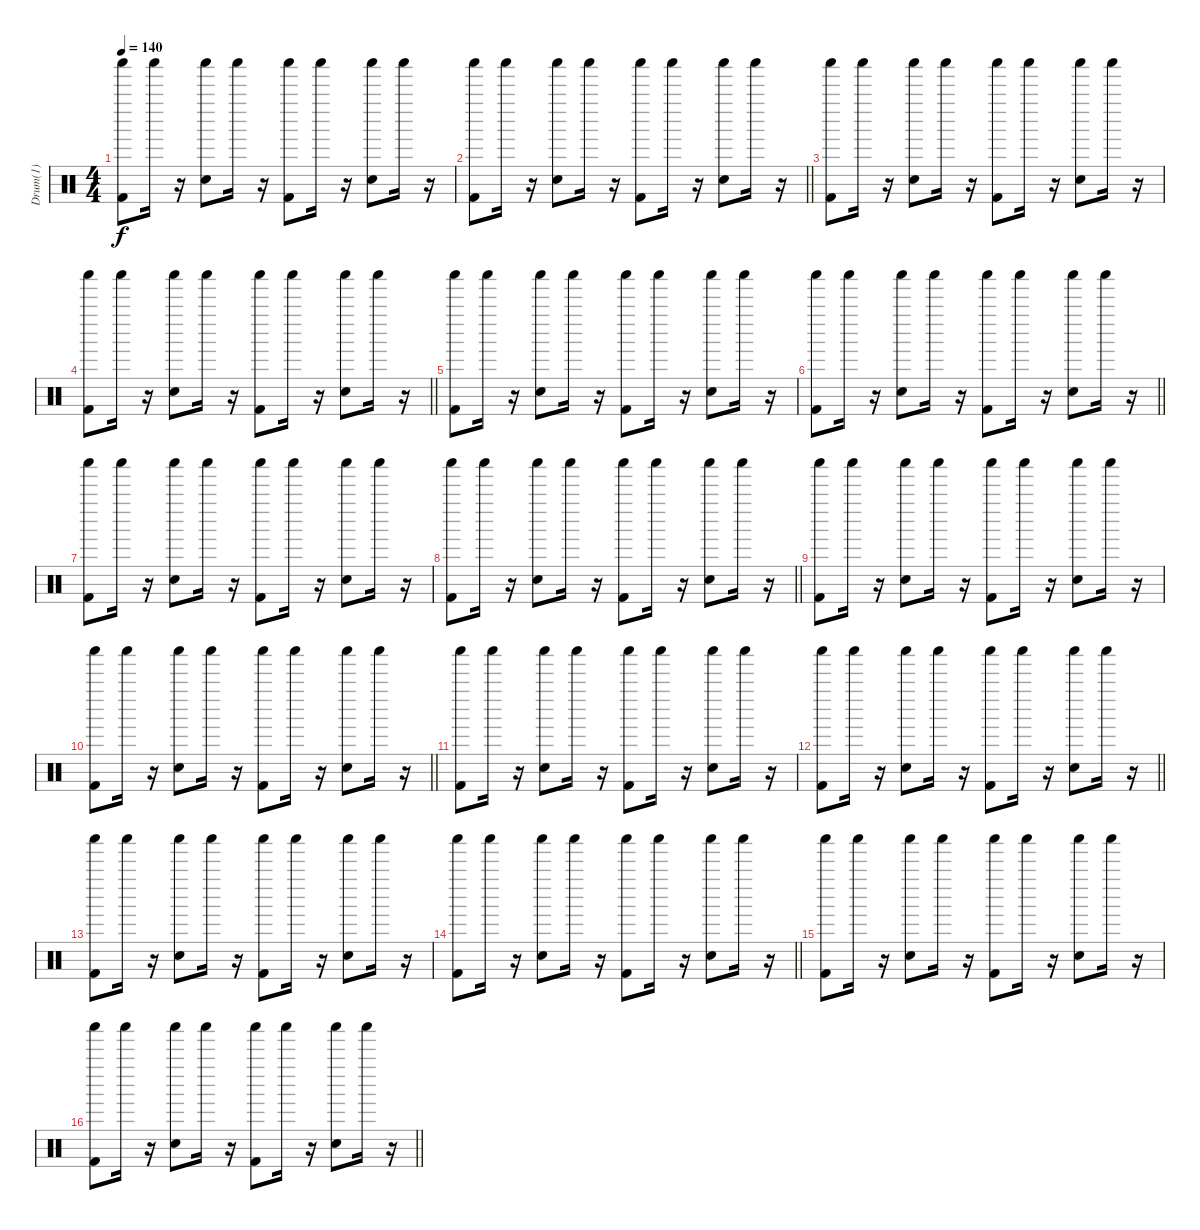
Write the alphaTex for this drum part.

\track ("Drum(1)" "Drum(1)") {instrument percussion}
\staff {score}
\articulation defaults
\ts (4 4)
\tempo 140
\clef neutral
\ks c
("Kick (hit) 2" "Shaker (hit)").8{dy f} "Shaker (hit)".16 r.16 ("Electric Snare (hit)" "Shaker (hit)").8 "Shaker (hit)".16 r.16 ("Kick (hit) 2" "Shaker (hit)").8 "Shaker (hit)".16 r.16 ("Electric Snare (hit)" "Shaker (hit)").8 "Shaker (hit)".16 r.16 |
\barLineRight lightlight
("Kick (hit) 2" "Shaker (hit)").8 "Shaker (hit)".16 r.16 ("Electric Snare (hit)" "Shaker (hit)").8 "Shaker (hit)".16 r.16 ("Kick (hit) 2" "Shaker (hit)").8 "Shaker (hit)".16 r.16 ("Electric Snare (hit)" "Shaker (hit)").8 "Shaker (hit)".16 r.16 |
("Kick (hit) 2" "Shaker (hit)").8 "Shaker (hit)".16 r.16 ("Electric Snare (hit)" "Shaker (hit)").8 "Shaker (hit)".16 r.16 ("Kick (hit) 2" "Shaker (hit)").8 "Shaker (hit)".16 r.16 ("Electric Snare (hit)" "Shaker (hit)").8 "Shaker (hit)".16 r.16 |
\barLineRight lightlight
("Kick (hit) 2" "Shaker (hit)").8 "Shaker (hit)".16 r.16 ("Electric Snare (hit)" "Shaker (hit)").8 "Shaker (hit)".16 r.16 ("Kick (hit) 2" "Shaker (hit)").8 "Shaker (hit)".16 r.16 ("Electric Snare (hit)" "Shaker (hit)").8 "Shaker (hit)".16 r.16 |
("Kick (hit) 2" "Shaker (hit)").8 "Shaker (hit)".16 r.16 ("Electric Snare (hit)" "Shaker (hit)").8 "Shaker (hit)".16 r.16 ("Kick (hit) 2" "Shaker (hit)").8 "Shaker (hit)".16 r.16 ("Electric Snare (hit)" "Shaker (hit)").8 "Shaker (hit)".16 r.16 |
\barLineRight lightlight
("Kick (hit) 2" "Shaker (hit)").8 "Shaker (hit)".16 r.16 ("Electric Snare (hit)" "Shaker (hit)").8 "Shaker (hit)".16 r.16 ("Kick (hit) 2" "Shaker (hit)").8 "Shaker (hit)".16 r.16 ("Electric Snare (hit)" "Shaker (hit)").8 "Shaker (hit)".16 r.16 |
("Kick (hit) 2" "Shaker (hit)").8 "Shaker (hit)".16 r.16 ("Electric Snare (hit)" "Shaker (hit)").8 "Shaker (hit)".16 r.16 ("Kick (hit) 2" "Shaker (hit)").8 "Shaker (hit)".16 r.16 ("Electric Snare (hit)" "Shaker (hit)").8 "Shaker (hit)".16 r.16 |
\barLineRight lightlight
("Kick (hit) 2" "Shaker (hit)").8 "Shaker (hit)".16 r.16 ("Electric Snare (hit)" "Shaker (hit)").8 "Shaker (hit)".16 r.16 ("Kick (hit) 2" "Shaker (hit)").8 "Shaker (hit)".16 r.16 ("Electric Snare (hit)" "Shaker (hit)").8 "Shaker (hit)".16 r.16 |
("Kick (hit) 2" "Shaker (hit)").8 "Shaker (hit)".16 r.16 ("Electric Snare (hit)" "Shaker (hit)").8 "Shaker (hit)".16 r.16 ("Kick (hit) 2" "Shaker (hit)").8 "Shaker (hit)".16 r.16 ("Electric Snare (hit)" "Shaker (hit)").8 "Shaker (hit)".16 r.16 |
\barLineRight lightlight
("Kick (hit) 2" "Shaker (hit)").8 "Shaker (hit)".16 r.16 ("Electric Snare (hit)" "Shaker (hit)").8 "Shaker (hit)".16 r.16 ("Kick (hit) 2" "Shaker (hit)").8 "Shaker (hit)".16 r.16 ("Electric Snare (hit)" "Shaker (hit)").8 "Shaker (hit)".16 r.16 |
("Kick (hit) 2" "Shaker (hit)").8 "Shaker (hit)".16 r.16 ("Electric Snare (hit)" "Shaker (hit)").8 "Shaker (hit)".16 r.16 ("Kick (hit) 2" "Shaker (hit)").8 "Shaker (hit)".16 r.16 ("Electric Snare (hit)" "Shaker (hit)").8 "Shaker (hit)".16 r.16 |
\barLineRight lightlight
("Kick (hit) 2" "Shaker (hit)").8 "Shaker (hit)".16 r.16 ("Electric Snare (hit)" "Shaker (hit)").8 "Shaker (hit)".16 r.16 ("Kick (hit) 2" "Shaker (hit)").8 "Shaker (hit)".16 r.16 ("Electric Snare (hit)" "Shaker (hit)").8 "Shaker (hit)".16 r.16 |
("Kick (hit) 2" "Shaker (hit)").8 "Shaker (hit)".16 r.16 ("Electric Snare (hit)" "Shaker (hit)").8 "Shaker (hit)".16 r.16 ("Kick (hit) 2" "Shaker (hit)").8 "Shaker (hit)".16 r.16 ("Electric Snare (hit)" "Shaker (hit)").8 "Shaker (hit)".16 r.16 |
\barLineRight lightlight
("Kick (hit) 2" "Shaker (hit)").8 "Shaker (hit)".16 r.16 ("Electric Snare (hit)" "Shaker (hit)").8 "Shaker (hit)".16 r.16 ("Kick (hit) 2" "Shaker (hit)").8 "Shaker (hit)".16 r.16 ("Electric Snare (hit)" "Shaker (hit)").8 "Shaker (hit)".16 r.16 |
("Kick (hit) 2" "Shaker (hit)").8 "Shaker (hit)".16 r.16 ("Electric Snare (hit)" "Shaker (hit)").8 "Shaker (hit)".16 r.16 ("Kick (hit) 2" "Shaker (hit)").8 "Shaker (hit)".16 r.16 ("Electric Snare (hit)" "Shaker (hit)").8 "Shaker (hit)".16 r.16 |
\barLineRight lightlight
("Kick (hit) 2" "Shaker (hit)").8 "Shaker (hit)".16 r.16 ("Electric Snare (hit)" "Shaker (hit)").8 "Shaker (hit)".16 r.16 ("Kick (hit) 2" "Shaker (hit)").8 "Shaker (hit)".16 r.16 ("Electric Snare (hit)" "Shaker (hit)").8 "Shaker (hit)".16 r.16
